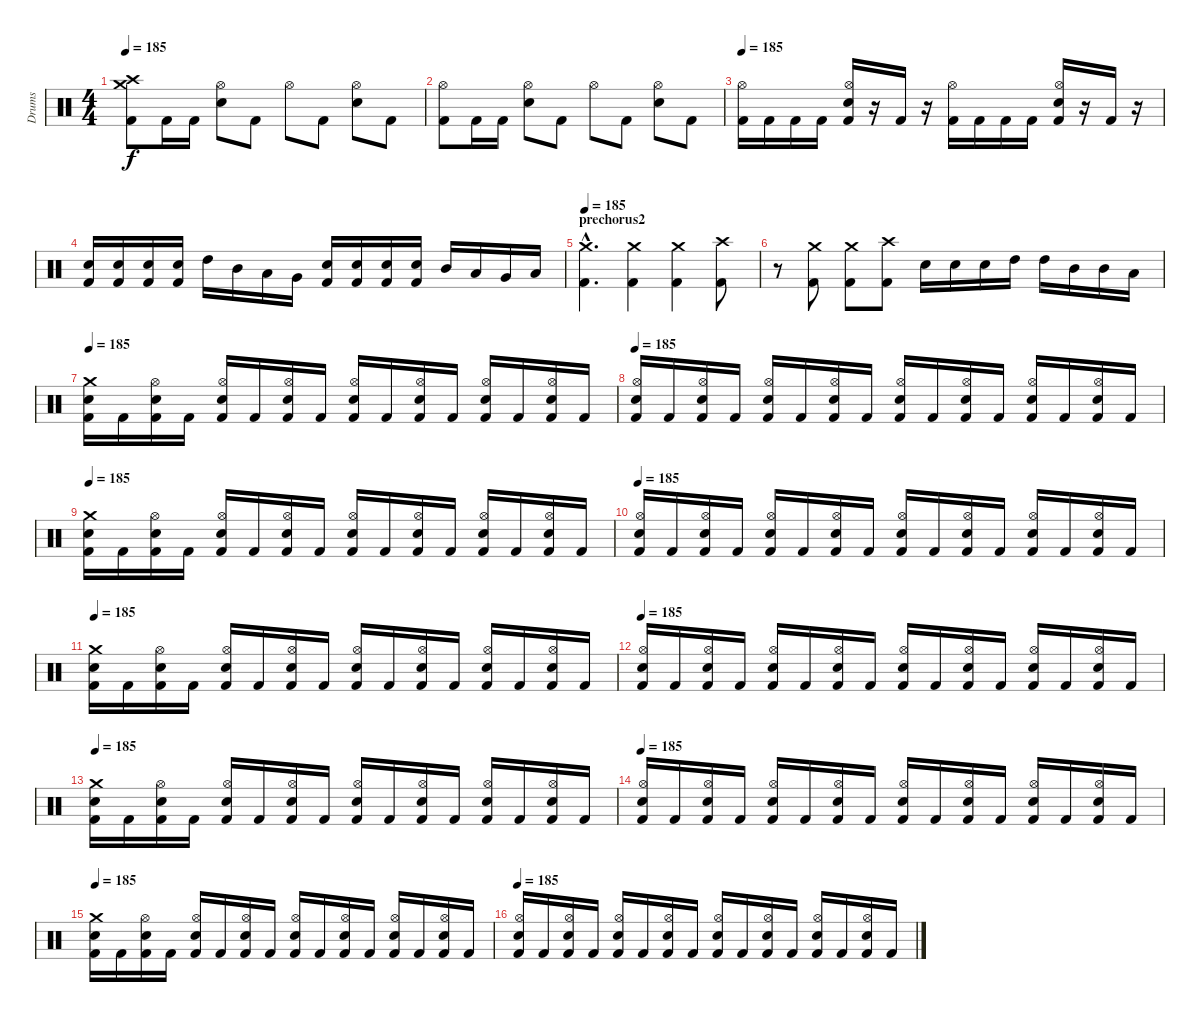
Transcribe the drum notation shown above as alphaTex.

\track ("Drums" "Drums") {instrument percussion}
\staff {score}
\articulation defaults
\ts (4 4)
\tempo 185
\clef neutral
\ks c
("Crash medium (hit)" "Crash high (hit)" "Kick (hit) 2").8{dy f} "Kick (hit) 2".16 "Kick (hit) 2".16 ("Hi-Hat (open)" "Electric Snare (hit)").8 "Kick (hit) 2".8 "Hi-Hat (open)".8 "Kick (hit) 2".8 ("Hi-Hat (open)" "Electric Snare (hit)").8 "Kick (hit) 2".8 |
("Hi-Hat (open)" "Kick (hit) 2").8 "Kick (hit) 2".16 "Kick (hit) 2".16 ("Hi-Hat (open)" "Electric Snare (hit)").8 "Kick (hit) 2".8 "Hi-Hat (open)".8 "Kick (hit) 2".8 ("Hi-Hat (open)" "Electric Snare (hit)").8 "Kick (hit) 2".8 |
\tempo 185
("Hi-Hat (open)" "Kick (hit) 2").16 "Kick (hit) 2".16 "Kick (hit) 2".16 "Kick (hit) 2".16 ("Hi-Hat (open)" "Electric Snare (hit)" "Kick (hit) 2").16 r.16 "Kick (hit) 2".16 r.16 ("Hi-Hat (open)" "Kick (hit) 2").16 "Kick (hit) 2".16 "Kick (hit) 2".16 "Kick (hit) 2".16 ("Hi-Hat (open)" "Electric Snare (hit)" "Kick (hit) 2").16 r.16 "Kick (hit) 2".16 r.16 |
("Electric Snare (hit)" "Kick (hit) 2").16 ("Electric Snare (hit)" "Kick (hit) 2").16 ("Electric Snare (hit)" "Kick (hit) 2").16 ("Electric Snare (hit)" "Kick (hit) 2").16 "High Tom (hit)".16 "Mid Tom (hit)".16 "Low Tom (hit)".16 "Very Low Tom (hit)".16 ("Electric Snare (hit)" "Kick (hit) 2").16 ("Electric Snare (hit)" "Kick (hit) 2").16 ("Electric Snare (hit)" "Kick (hit) 2").16 ("Electric Snare (hit)" "Kick (hit) 2").16 "Mid Tom (hit)".16 "Low Tom (hit)".16 "Very Low Tom (hit)".16 "Low Floor Tom (hit)".16 |
\section ("" "prechorus2")
\tempo 185
("Crash medium (hit)"{hac} "Kick (hit) 2"{hac}).4{d} ("Crash medium (hit)" "Kick (hit) 2").4 ("Crash medium (hit)" "Kick (hit) 2").4 ("Crash high (hit)" "Kick (hit) 2").8 |
r.8 ("Crash medium (hit)" "Kick (hit) 2").8 ("Crash medium (hit)" "Kick (hit) 2").8 ("Crash high (hit)" "Kick (hit) 2").8 "Electric Snare (hit)".16 "Electric Snare (hit)".16 "Electric Snare (hit)".16 "High Tom (hit)".16 "High Tom (hit)".16 "Mid Tom (hit)".16 "Mid Tom (hit)".16 "Low Tom (hit)".16 |
\tempo 185
("Crash medium (hit)" "Electric Snare (hit)" "Kick (hit) 2").16 "Kick (hit) 2".16 ("Hi-Hat (open)" "Electric Snare (hit)" "Kick (hit) 2").16 "Kick (hit) 2".16 ("Hi-Hat (open)" "Electric Snare (hit)" "Kick (hit) 2").16 "Kick (hit) 2".16 ("Hi-Hat (open)" "Electric Snare (hit)" "Kick (hit) 2").16 "Kick (hit) 2".16 ("Hi-Hat (open)" "Electric Snare (hit)" "Kick (hit) 2").16 "Kick (hit) 2".16 ("Hi-Hat (open)" "Electric Snare (hit)" "Kick (hit) 2").16 "Kick (hit) 2".16 ("Hi-Hat (open)" "Electric Snare (hit)" "Kick (hit) 2").16 "Kick (hit) 2".16 ("Hi-Hat (open)" "Electric Snare (hit)" "Kick (hit) 2").16 "Kick (hit) 2".16 |
\tempo 185
("Hi-Hat (open)" "Electric Snare (hit)" "Kick (hit) 2").16 "Kick (hit) 2".16 ("Hi-Hat (open)" "Electric Snare (hit)" "Kick (hit) 2").16 "Kick (hit) 2".16 ("Hi-Hat (open)" "Electric Snare (hit)" "Kick (hit) 2").16 "Kick (hit) 2".16 ("Hi-Hat (open)" "Electric Snare (hit)" "Kick (hit) 2").16 "Kick (hit) 2".16 ("Hi-Hat (open)" "Electric Snare (hit)" "Kick (hit) 2").16 "Kick (hit) 2".16 ("Hi-Hat (open)" "Electric Snare (hit)" "Kick (hit) 2").16 "Kick (hit) 2".16 ("Hi-Hat (open)" "Electric Snare (hit)" "Kick (hit) 2").16 "Kick (hit) 2".16 ("Hi-Hat (open)" "Electric Snare (hit)" "Kick (hit) 2").16 "Kick (hit) 2".16 |
\tempo 185
("Crash medium (hit)" "Electric Snare (hit)" "Kick (hit) 2").16 "Kick (hit) 2".16 ("Hi-Hat (open)" "Electric Snare (hit)" "Kick (hit) 2").16 "Kick (hit) 2".16 ("Hi-Hat (open)" "Electric Snare (hit)" "Kick (hit) 2").16 "Kick (hit) 2".16 ("Hi-Hat (open)" "Electric Snare (hit)" "Kick (hit) 2").16 "Kick (hit) 2".16 ("Hi-Hat (open)" "Electric Snare (hit)" "Kick (hit) 2").16 "Kick (hit) 2".16 ("Hi-Hat (open)" "Electric Snare (hit)" "Kick (hit) 2").16 "Kick (hit) 2".16 ("Hi-Hat (open)" "Electric Snare (hit)" "Kick (hit) 2").16 "Kick (hit) 2".16 ("Hi-Hat (open)" "Electric Snare (hit)" "Kick (hit) 2").16 "Kick (hit) 2".16 |
\tempo 185
("Hi-Hat (open)" "Electric Snare (hit)" "Kick (hit) 2").16 "Kick (hit) 2".16 ("Hi-Hat (open)" "Electric Snare (hit)" "Kick (hit) 2").16 "Kick (hit) 2".16 ("Hi-Hat (open)" "Electric Snare (hit)" "Kick (hit) 2").16 "Kick (hit) 2".16 ("Hi-Hat (open)" "Electric Snare (hit)" "Kick (hit) 2").16 "Kick (hit) 2".16 ("Hi-Hat (open)" "Electric Snare (hit)" "Kick (hit) 2").16 "Kick (hit) 2".16 ("Hi-Hat (open)" "Electric Snare (hit)" "Kick (hit) 2").16 "Kick (hit) 2".16 ("Hi-Hat (open)" "Electric Snare (hit)" "Kick (hit) 2").16 "Kick (hit) 2".16 ("Hi-Hat (open)" "Electric Snare (hit)" "Kick (hit) 2").16 "Kick (hit) 2".16 |
\tempo 185
("Crash medium (hit)" "Electric Snare (hit)" "Kick (hit) 2").16 "Kick (hit) 2".16 ("Hi-Hat (open)" "Electric Snare (hit)" "Kick (hit) 2").16 "Kick (hit) 2".16 ("Hi-Hat (open)" "Electric Snare (hit)" "Kick (hit) 2").16 "Kick (hit) 2".16 ("Hi-Hat (open)" "Electric Snare (hit)" "Kick (hit) 2").16 "Kick (hit) 2".16 ("Hi-Hat (open)" "Electric Snare (hit)" "Kick (hit) 2").16 "Kick (hit) 2".16 ("Hi-Hat (open)" "Electric Snare (hit)" "Kick (hit) 2").16 "Kick (hit) 2".16 ("Hi-Hat (open)" "Electric Snare (hit)" "Kick (hit) 2").16 "Kick (hit) 2".16 ("Hi-Hat (open)" "Electric Snare (hit)" "Kick (hit) 2").16 "Kick (hit) 2".16 |
\tempo 185
("Hi-Hat (open)" "Electric Snare (hit)" "Kick (hit) 2").16 "Kick (hit) 2".16 ("Hi-Hat (open)" "Electric Snare (hit)" "Kick (hit) 2").16 "Kick (hit) 2".16 ("Hi-Hat (open)" "Electric Snare (hit)" "Kick (hit) 2").16 "Kick (hit) 2".16 ("Hi-Hat (open)" "Electric Snare (hit)" "Kick (hit) 2").16 "Kick (hit) 2".16 ("Hi-Hat (open)" "Electric Snare (hit)" "Kick (hit) 2").16 "Kick (hit) 2".16 ("Hi-Hat (open)" "Electric Snare (hit)" "Kick (hit) 2").16 "Kick (hit) 2".16 ("Hi-Hat (open)" "Electric Snare (hit)" "Kick (hit) 2").16 "Kick (hit) 2".16 ("Hi-Hat (open)" "Electric Snare (hit)" "Kick (hit) 2").16 "Kick (hit) 2".16 |
\tempo 185
("Crash medium (hit)" "Electric Snare (hit)" "Kick (hit) 2").16 "Kick (hit) 2".16 ("Hi-Hat (open)" "Electric Snare (hit)" "Kick (hit) 2").16 "Kick (hit) 2".16 ("Hi-Hat (open)" "Electric Snare (hit)" "Kick (hit) 2").16 "Kick (hit) 2".16 ("Hi-Hat (open)" "Electric Snare (hit)" "Kick (hit) 2").16 "Kick (hit) 2".16 ("Hi-Hat (open)" "Electric Snare (hit)" "Kick (hit) 2").16 "Kick (hit) 2".16 ("Hi-Hat (open)" "Electric Snare (hit)" "Kick (hit) 2").16 "Kick (hit) 2".16 ("Hi-Hat (open)" "Electric Snare (hit)" "Kick (hit) 2").16 "Kick (hit) 2".16 ("Hi-Hat (open)" "Electric Snare (hit)" "Kick (hit) 2").16 "Kick (hit) 2".16 |
\tempo 185
("Hi-Hat (open)" "Electric Snare (hit)" "Kick (hit) 2").16 "Kick (hit) 2".16 ("Hi-Hat (open)" "Electric Snare (hit)" "Kick (hit) 2").16 "Kick (hit) 2".16 ("Hi-Hat (open)" "Electric Snare (hit)" "Kick (hit) 2").16 "Kick (hit) 2".16 ("Hi-Hat (open)" "Electric Snare (hit)" "Kick (hit) 2").16 "Kick (hit) 2".16 ("Hi-Hat (open)" "Electric Snare (hit)" "Kick (hit) 2").16 "Kick (hit) 2".16 ("Hi-Hat (open)" "Electric Snare (hit)" "Kick (hit) 2").16 "Kick (hit) 2".16 ("Hi-Hat (open)" "Electric Snare (hit)" "Kick (hit) 2").16 "Kick (hit) 2".16 ("Hi-Hat (open)" "Electric Snare (hit)" "Kick (hit) 2").16 "Kick (hit) 2".16 |
\tempo 185
("Crash medium (hit)" "Electric Snare (hit)" "Kick (hit) 2").16 "Kick (hit) 2".16 ("Hi-Hat (open)" "Electric Snare (hit)" "Kick (hit) 2").16 "Kick (hit) 2".16 ("Hi-Hat (open)" "Electric Snare (hit)" "Kick (hit) 2").16 "Kick (hit) 2".16 ("Hi-Hat (open)" "Electric Snare (hit)" "Kick (hit) 2").16 "Kick (hit) 2".16 ("Hi-Hat (open)" "Electric Snare (hit)" "Kick (hit) 2").16 "Kick (hit) 2".16 ("Hi-Hat (open)" "Electric Snare (hit)" "Kick (hit) 2").16 "Kick (hit) 2".16 ("Hi-Hat (open)" "Electric Snare (hit)" "Kick (hit) 2").16 "Kick (hit) 2".16 ("Hi-Hat (open)" "Electric Snare (hit)" "Kick (hit) 2").16 "Kick (hit) 2".16 |
\tempo 185
("Hi-Hat (open)" "Electric Snare (hit)" "Kick (hit) 2").16 "Kick (hit) 2".16 ("Hi-Hat (open)" "Electric Snare (hit)" "Kick (hit) 2").16 "Kick (hit) 2".16 ("Hi-Hat (open)" "Electric Snare (hit)" "Kick (hit) 2").16 "Kick (hit) 2".16 ("Hi-Hat (open)" "Electric Snare (hit)" "Kick (hit) 2").16 "Kick (hit) 2".16 ("Hi-Hat (open)" "Electric Snare (hit)" "Kick (hit) 2").16 "Kick (hit) 2".16 ("Hi-Hat (open)" "Electric Snare (hit)" "Kick (hit) 2").16 "Kick (hit) 2".16 ("Hi-Hat (open)" "Electric Snare (hit)" "Kick (hit) 2").16 "Kick (hit) 2".16 ("Hi-Hat (open)" "Electric Snare (hit)" "Kick (hit) 2").16 "Kick (hit) 2".16
